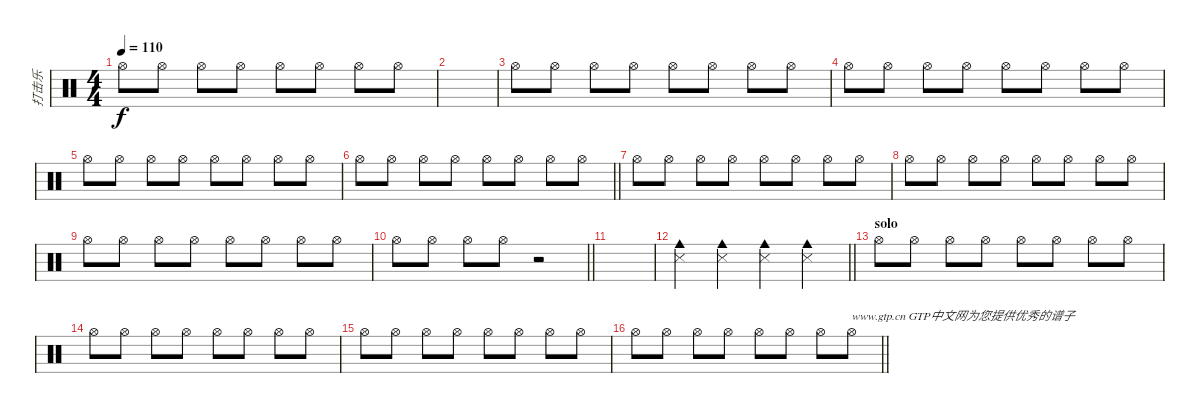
\track ("打击乐" "打击乐") {instrument percussion}
\staff {score}
\articulation defaults
\ts (4 4)
\tempo 110
\clef neutral
\ks c "Hi-Hat (open)".8{dy f} "Hi-Hat (open)".8 "Hi-Hat (open)".8 "Hi-Hat (open)".8 "Hi-Hat (open)".8 "Hi-Hat (open)".8 "Hi-Hat (open)".8 "Hi-Hat (open)".8
|
|
"Hi-Hat (open)".8 "Hi-Hat (open)".8 "Hi-Hat (open)".8 "Hi-Hat (open)".8 "Hi-Hat (open)".8 "Hi-Hat (open)".8 "Hi-Hat (open)".8 "Hi-Hat (open)".8 |
"Hi-Hat (open)".8 "Hi-Hat (open)".8 "Hi-Hat (open)".8 "Hi-Hat (open)".8 "Hi-Hat (open)".8 "Hi-Hat (open)".8 "Hi-Hat (open)".8 "Hi-Hat (open)".8 |
"Hi-Hat (open)".8 "Hi-Hat (open)".8 "Hi-Hat (open)".8 "Hi-Hat (open)".8 "Hi-Hat (open)".8 "Hi-Hat (open)".8 "Hi-Hat (open)".8 "Hi-Hat (open)".8 |
\barLineRight lightlight "Hi-Hat (open)".8 "Hi-Hat (open)".8 "Hi-Hat (open)".8 "Hi-Hat (open)".8 "Hi-Hat (open)".8 "Hi-Hat (open)".8 "Hi-Hat (open)".8 "Hi-Hat (open)".8
|
"Hi-Hat (open)".8 "Hi-Hat (open)".8 "Hi-Hat (open)".8 "Hi-Hat (open)".8 "Hi-Hat (open)".8 "Hi-Hat (open)".8 "Hi-Hat (open)".8 "Hi-Hat (open)".8 |
"Hi-Hat (open)".8 "Hi-Hat (open)".8 "Hi-Hat (open)".8 "Hi-Hat (open)".8 "Hi-Hat (open)".8 "Hi-Hat (open)".8 "Hi-Hat (open)".8 "Hi-Hat (open)".8 |
"Hi-Hat (open)".8 "Hi-Hat (open)".8 "Hi-Hat (open)".8 "Hi-Hat (open)".8 "Hi-Hat (open)".8 "Hi-Hat (open)".8 "Hi-Hat (open)".8 "Hi-Hat (open)".8 |
\barLineRight lightlight "Hi-Hat (open)".8 "Hi-Hat (open)".8 "Hi-Hat (open)".8 "Hi-Hat (open)".8
r.2 |
|
\barLineRight lightlight
("Cowbell medium (hit)" "Snare (side stick) 3").4 ("Cowbell medium (hit)" "Snare (side stick) 3").4 ("Cowbell medium (hit)" "Snare (side stick) 3").4 ("Cowbell medium (hit)" "Snare (side stick) 3").4 |
\section ("" "solo")
"Hi-Hat (open)".8 "Hi-Hat (open)".8 "Hi-Hat (open)".8 "Hi-Hat (open)".8 "Hi-Hat (open)".8 "Hi-Hat (open)".8 "Hi-Hat (open)".8 "Hi-Hat (open)".8 |
"Hi-Hat (open)".8 "Hi-Hat (open)".8 "Hi-Hat (open)".8 "Hi-Hat (open)".8 "Hi-Hat (open)".8 "Hi-Hat (open)".8 "Hi-Hat (open)".8 "Hi-Hat (open)".8 |
"Hi-Hat (open)".8 "Hi-Hat (open)".8 "Hi-Hat (open)".8 "Hi-Hat (open)".8 "Hi-Hat (open)".8 "Hi-Hat (open)".8 "Hi-Hat (open)".8 "Hi-Hat (open)".8 |
\barLineRight lightlight "Hi-Hat (open)".8 "Hi-Hat (open)".8 "Hi-Hat (open)".8 "Hi-Hat (open)".8 "Hi-Hat (open)".8 "Hi-Hat (open)".8 "Hi-Hat (open)".8 "Hi-Hat (open)".8{txt "www.gtp.cn GTP中文网为您提供优秀的谱子"}
